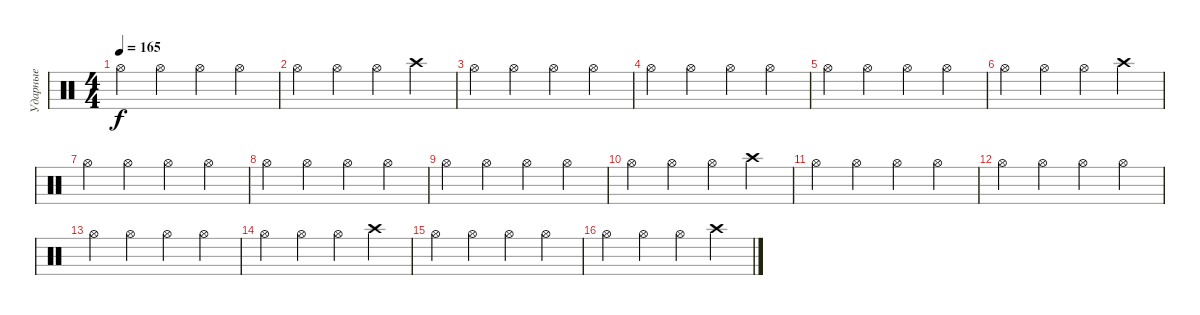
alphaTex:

\track ("Ударные" "Ударные") {instrument percussion}
\staff {score}
\articulation defaults
\ts (4 4)
\tempo 165
\clef neutral
\ks c "Hi-Hat (open)".4{dy f} "Hi-Hat (open)".4 "Hi-Hat (open)".4 "Hi-Hat (open)".4
|
"Hi-Hat (open)".4 "Hi-Hat (open)".4 "Hi-Hat (open)".4 "Crash high (hit)".4 |
"Hi-Hat (open)".4 "Hi-Hat (open)".4 "Hi-Hat (open)".4 "Hi-Hat (open)".4 |
"Hi-Hat (open)".4 "Hi-Hat (open)".4 "Hi-Hat (open)".4 "Hi-Hat (open)".4 |
"Hi-Hat (open)".4 "Hi-Hat (open)".4 "Hi-Hat (open)".4 "Hi-Hat (open)".4 |
"Hi-Hat (open)".4 "Hi-Hat (open)".4 "Hi-Hat (open)".4 "Crash high (hit)".4 |
"Hi-Hat (open)".4 "Hi-Hat (open)".4 "Hi-Hat (open)".4 "Hi-Hat (open)".4 |
"Hi-Hat (open)".4 "Hi-Hat (open)".4 "Hi-Hat (open)".4 "Hi-Hat (open)".4 |
"Hi-Hat (open)".4 "Hi-Hat (open)".4 "Hi-Hat (open)".4 "Hi-Hat (open)".4 |
"Hi-Hat (open)".4 "Hi-Hat (open)".4 "Hi-Hat (open)".4 "Crash high (hit)".4 |
"Hi-Hat (open)".4 "Hi-Hat (open)".4 "Hi-Hat (open)".4 "Hi-Hat (open)".4 |
"Hi-Hat (open)".4 "Hi-Hat (open)".4 "Hi-Hat (open)".4 "Hi-Hat (open)".4 |
"Hi-Hat (open)".4 "Hi-Hat (open)".4 "Hi-Hat (open)".4 "Hi-Hat (open)".4 |
"Hi-Hat (open)".4 "Hi-Hat (open)".4 "Hi-Hat (open)".4 "Crash high (hit)".4 |
"Hi-Hat (open)".4 "Hi-Hat (open)".4 "Hi-Hat (open)".4 "Hi-Hat (open)".4 |
"Hi-Hat (open)".4 "Hi-Hat (open)".4 "Hi-Hat (open)".4 "Crash high (hit)".4
